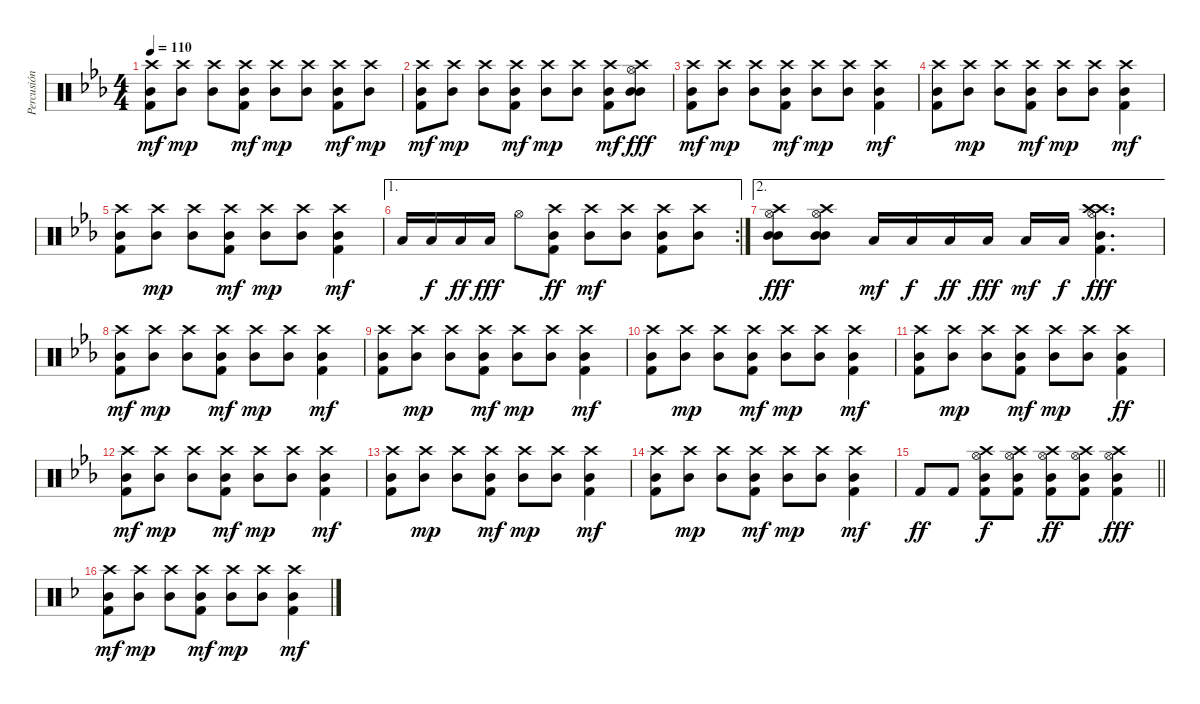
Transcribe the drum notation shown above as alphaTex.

\track ("Percusión" "Percusión") {instrument percussion}
\staff {score}
\articulation defaults
\ts (4 4)
\tempo 110
\clef neutral
\ks eb
("Kick (hit) 2" "Mid Tom (hit)" "Crash high (hit)").8{dy mf} ("Mid Tom (hit)" "Crash high (hit)").8{dy mp} ("Mid Tom (hit)" "Crash high (hit)").8 ("Kick (hit) 2" "Mid Tom (hit)" "Crash high (hit)").8{dy mf} ("Mid Tom (hit)" "Crash high (hit)").8{dy mp} ("Mid Tom (hit)" "Crash high (hit)").8 ("Kick (hit) 2" "Mid Tom (hit)" "Crash high (hit)").8{dy mf} ("Mid Tom (hit)" "Crash high (hit)").8{dy mp} |
("Kick (hit) 2" "Mid Tom (hit)" "Crash high (hit)").8{dy mf} ("Mid Tom (hit)" "Crash high (hit)").8{dy mp} ("Mid Tom (hit)" "Crash high (hit)").8 ("Kick (hit) 2" "Mid Tom (hit)" "Crash high (hit)").8{dy mf} ("Mid Tom (hit)" "Crash high (hit)").8{dy mp} ("Mid Tom (hit)" "Crash high (hit)").8 ("Kick (hit) 2" "Mid Tom (hit)" "Crash high (hit)").8{dy mf} ("Hi-Hat (open)" "Mid Tom (hit)" "Mid Tom (hit)" "Crash high (hit)").8{dy fff} |
("Kick (hit) 2" "Mid Tom (hit)" "Crash high (hit)").8{dy mf} ("Mid Tom (hit)" "Crash high (hit)").8{dy mp} ("Mid Tom (hit)" "Crash high (hit)").8 ("Kick (hit) 2" "Mid Tom (hit)" "Crash high (hit)").8{dy mf} ("Mid Tom (hit)" "Crash high (hit)").8{dy mp} ("Mid Tom (hit)" "Crash high (hit)").8 ("Kick (hit) 2" "Mid Tom (hit)" "Crash high (hit)").4{dy mf} |
("Kick (hit) 2" "Mid Tom (hit)" "Crash high (hit)").8 ("Mid Tom (hit)" "Crash high (hit)").8{dy mp} ("Mid Tom (hit)" "Crash high (hit)").8 ("Kick (hit) 2" "Mid Tom (hit)" "Crash high (hit)").8{dy mf} ("Mid Tom (hit)" "Crash high (hit)").8{dy mp} ("Mid Tom (hit)" "Crash high (hit)").8 ("Kick (hit) 2" "Mid Tom (hit)" "Crash high (hit)").4{dy mf} |
("Kick (hit) 2" "Mid Tom (hit)" "Crash high (hit)").8 ("Mid Tom (hit)" "Crash high (hit)").8{dy mp} ("Mid Tom (hit)" "Crash high (hit)").8 ("Kick (hit) 2" "Mid Tom (hit)" "Crash high (hit)").8{dy mf} ("Mid Tom (hit)" "Crash high (hit)").8{dy mp} ("Mid Tom (hit)" "Crash high (hit)").8 ("Kick (hit) 2" "Mid Tom (hit)" "Crash high (hit)").4{dy mf} |
\ae 1
\rc 2 "Low Tom (hit)".16 "Low Tom (hit)".16{dy f} "Low Tom (hit)".16{dy ff} "Low Tom (hit)".16{dy fff} "Hi-Hat (open)".8
("Kick (hit) 2" "Mid Tom (hit)" "Crash high (hit)").8{dy ff} ("Mid Tom (hit)" "Crash high (hit)").8{dy mf} ("Mid Tom (hit)" "Crash high (hit)").8 ("Kick (hit) 2" "Mid Tom (hit)" "Crash high (hit)").8 ("Mid Tom (hit)" "Crash high (hit)").8 |
\ae 2
("Hi-Hat (open)" "Mid Tom (hit)" "Mid Tom (hit)" "Crash high (hit)").8{dy fff} ("Hi-Hat (open)" "Mid Tom (hit)" "Mid Tom (hit)" "Crash high (hit)").8 "Low Tom (hit)".16{dy mf} "Low Tom (hit)".16{dy f} "Low Tom (hit)".16{dy ff} "Low Tom (hit)".16{dy fff} "Low Tom (hit)".16{dy mf} "Low Tom (hit)".16{dy f} ("Hi-Hat (open)" "Crash high (hit)" "Kick (hit) 2" "Mid Tom (hit)" "Crash high (hit)").4{d dy fff} |
("Kick (hit) 2" "Mid Tom (hit)" "Crash high (hit)").8{dy mf} ("Mid Tom (hit)" "Crash high (hit)").8{dy mp} ("Mid Tom (hit)" "Crash high (hit)").8 ("Kick (hit) 2" "Mid Tom (hit)" "Crash high (hit)").8{dy mf} ("Mid Tom (hit)" "Crash high (hit)").8{dy mp} ("Mid Tom (hit)" "Crash high (hit)").8 ("Kick (hit) 2" "Mid Tom (hit)" "Crash high (hit)").4{dy mf} |
("Kick (hit) 2" "Mid Tom (hit)" "Crash high (hit)").8 ("Mid Tom (hit)" "Crash high (hit)").8{dy mp} ("Mid Tom (hit)" "Crash high (hit)").8 ("Kick (hit) 2" "Mid Tom (hit)" "Crash high (hit)").8{dy mf} ("Mid Tom (hit)" "Crash high (hit)").8{dy mp} ("Mid Tom (hit)" "Crash high (hit)").8 ("Kick (hit) 2" "Mid Tom (hit)" "Crash high (hit)").4{dy mf} |
("Kick (hit) 2" "Mid Tom (hit)" "Crash high (hit)").8 ("Mid Tom (hit)" "Crash high (hit)").8{dy mp} ("Mid Tom (hit)" "Crash high (hit)").8 ("Kick (hit) 2" "Mid Tom (hit)" "Crash high (hit)").8{dy mf} ("Mid Tom (hit)" "Crash high (hit)").8{dy mp} ("Mid Tom (hit)" "Crash high (hit)").8 ("Kick (hit) 2" "Mid Tom (hit)" "Crash high (hit)").4{dy mf} |
("Kick (hit) 2" "Mid Tom (hit)" "Crash high (hit)").8 ("Mid Tom (hit)" "Crash high (hit)").8{dy mp} ("Mid Tom (hit)" "Crash high (hit)").8 ("Kick (hit) 2" "Mid Tom (hit)" "Crash high (hit)").8{dy mf} ("Mid Tom (hit)" "Crash high (hit)").8{dy mp} ("Mid Tom (hit)" "Crash high (hit)").8 ("Kick (hit) 2" "Mid Tom (hit)" "Crash high (hit)").4{dy ff} |
("Kick (hit) 2" "Mid Tom (hit)" "Crash high (hit)").8{dy mf} ("Mid Tom (hit)" "Crash high (hit)").8{dy mp} ("Mid Tom (hit)" "Crash high (hit)").8 ("Kick (hit) 2" "Mid Tom (hit)" "Crash high (hit)").8{dy mf} ("Mid Tom (hit)" "Crash high (hit)").8{dy mp} ("Mid Tom (hit)" "Crash high (hit)").8 ("Kick (hit) 2" "Mid Tom (hit)" "Crash high (hit)").4{dy mf} |
("Kick (hit) 2" "Mid Tom (hit)" "Crash high (hit)").8 ("Mid Tom (hit)" "Crash high (hit)").8{dy mp} ("Mid Tom (hit)" "Crash high (hit)").8 ("Kick (hit) 2" "Mid Tom (hit)" "Crash high (hit)").8{dy mf} ("Mid Tom (hit)" "Crash high (hit)").8{dy mp} ("Mid Tom (hit)" "Crash high (hit)").8 ("Kick (hit) 2" "Mid Tom (hit)" "Crash high (hit)").4{dy mf} |
("Kick (hit) 2" "Mid Tom (hit)" "Crash high (hit)").8 ("Mid Tom (hit)" "Crash high (hit)").8{dy mp} ("Mid Tom (hit)" "Crash high (hit)").8 ("Kick (hit) 2" "Mid Tom (hit)" "Crash high (hit)").8{dy mf} ("Mid Tom (hit)" "Crash high (hit)").8{dy mp} ("Mid Tom (hit)" "Crash high (hit)").8 ("Kick (hit) 2" "Mid Tom (hit)" "Crash high (hit)").4{dy mf} |
\barLineRight lightlight "Kick (hit) 2".8{dy ff} "Kick (hit) 2".8
("Hi-Hat (open)" "Kick (hit) 2" "Mid Tom (hit)" "Crash high (hit)").8{dy f} ("Hi-Hat (open)" "Kick (hit) 2" "Mid Tom (hit)" "Crash high (hit)").8 ("Hi-Hat (open)" "Kick (hit) 2" "Mid Tom (hit)" "Crash high (hit)").8{dy ff} ("Hi-Hat (open)" "Kick (hit) 2" "Mid Tom (hit)" "Crash high (hit)").8 ("Hi-Hat (open)" "Kick (hit) 2" "Mid Tom (hit)" "Crash high (hit)").4{dy fff} |
\ks f
("Kick (hit) 2" "Mid Tom (hit)" "Crash high (hit)").8{dy mf} ("Mid Tom (hit)" "Crash high (hit)").8{dy mp} ("Mid Tom (hit)" "Crash high (hit)").8 ("Kick (hit) 2" "Mid Tom (hit)" "Crash high (hit)").8{dy mf} ("Mid Tom (hit)" "Crash high (hit)").8{dy mp} ("Mid Tom (hit)" "Crash high (hit)").8 ("Kick (hit) 2" "Mid Tom (hit)" "Crash high (hit)").4{dy mf}
